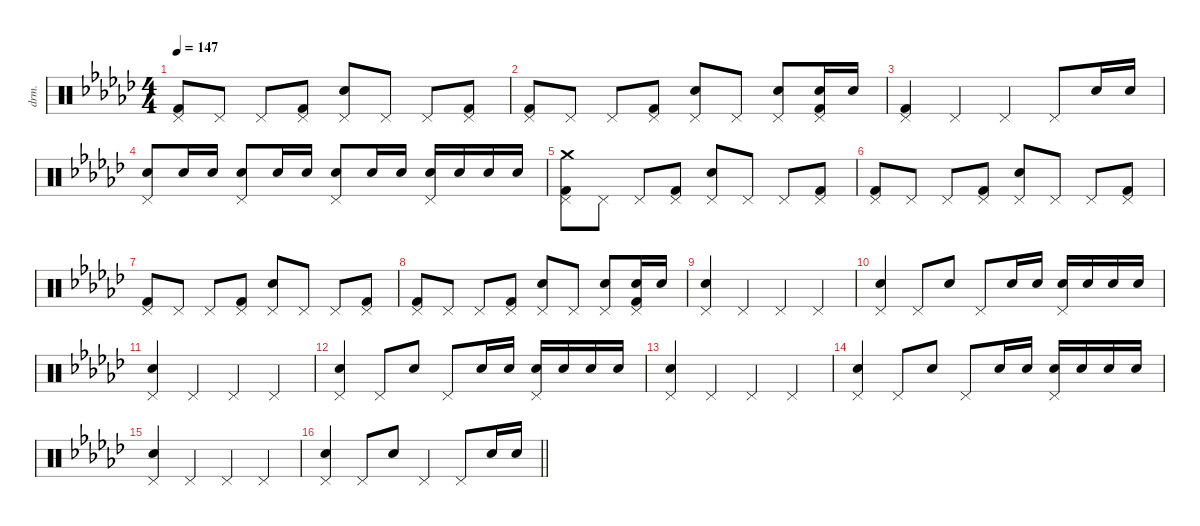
\defaultSystemsLayout 8
\hideDynamics
\bracketExtendMode nobrackets
\otherSystemsTrackNameOrientation horizontal
\track ("Drums" "drm.") {defaultSystemsLayout 4 instrument percussion}
\staff {score}
\articulation defaults
\ts (4 4)
\tempo 147
\clef neutral
\ks ebminor
("Pedal Hi-Hat (hit)"{acc forcenatural} "Kick (hit) 2"{acc forcenatural}).8{dy f beam Up} "Pedal Hi-Hat (hit)"{acc forcenatural}.8{dy mp beam Up} "Pedal Hi-Hat (hit)"{acc forcenatural}.8{dy f beam Up} ("Pedal Hi-Hat (hit)"{acc forcenatural} "Kick (hit) 2"{acc forcenatural}).8{dy mp beam Up} ("Pedal Hi-Hat (hit)"{acc forcenatural} "Snare (hit) 2"{acc forcenatural}).8{dy f beam Up} "Pedal Hi-Hat (hit)"{acc forcenatural}.8{dy mp beam Up} "Pedal Hi-Hat (hit)"{acc forcenatural}.8{dy f beam Up} ("Pedal Hi-Hat (hit)"{acc forcenatural} "Kick (hit) 2"{acc forcenatural}).8{dy mp beam Up} |
("Pedal Hi-Hat (hit)"{acc forcenatural} "Kick (hit) 2"{acc forcenatural}).8{dy f beam Up} "Pedal Hi-Hat (hit)"{acc forcenatural}.8{dy mp beam Up} "Pedal Hi-Hat (hit)"{acc forcenatural}.8{dy f beam Up} ("Pedal Hi-Hat (hit)"{acc forcenatural} "Kick (hit) 2"{acc forcenatural}).8{dy mp beam Up} ("Pedal Hi-Hat (hit)"{acc forcenatural} "Snare (hit) 2"{acc forcenatural}).8{dy f beam Up} "Pedal Hi-Hat (hit)"{acc forcenatural}.8{dy mp beam Up} ("Pedal Hi-Hat (hit)"{acc forcenatural} "Snare (hit) 2"{acc forcenatural}).8{dy f beam Up} ("Pedal Hi-Hat (hit)"{acc forcenatural} "Snare (hit) 2"{acc forcenatural} "Kick (hit) 2"{acc forcenatural}).16{dy mp beam Up} "Snare (hit) 2"{acc forcenatural}.16{dy f beam Up} |
("Pedal Hi-Hat (hit)"{acc forcenatural} "Kick (hit) 2"{acc forcenatural}).4{beam Up} "Pedal Hi-Hat (hit)"{acc forcenatural}.4{beam Up} "Pedal Hi-Hat (hit)"{acc forcenatural}.4{beam Up} "Pedal Hi-Hat (hit)"{acc forcenatural}.8{beam Up} "Snare (hit) 2"{acc forcenatural}.16{dy mf beam Up} "Snare (hit) 2"{acc forcenatural}.16{beam Up} |
("Pedal Hi-Hat (hit)"{acc forcenatural} "Snare (hit) 2"{acc forcenatural}).8{dy f beam Up} "Snare (hit) 2"{acc forcenatural}.16{dy mf beam Up} "Snare (hit) 2"{acc forcenatural}.16{beam Up} ("Pedal Hi-Hat (hit)"{acc forcenatural} "Snare (hit) 2"{acc forcenatural}).8{dy f beam Up} "Snare (hit) 2"{acc forcenatural}.16{dy mf beam Up} "Snare (hit) 2"{acc forcenatural}.16{beam Up} ("Pedal Hi-Hat (hit)"{acc forcenatural} "Snare (hit) 2"{acc forcenatural}).8{dy f beam Up} "Snare (hit) 2"{acc forcenatural}.16{dy mf beam Up} "Snare (hit) 2"{acc forcenatural}.16{beam Up} ("Pedal Hi-Hat (hit)"{acc forcenatural} "Snare (hit) 2"{acc forcenatural}).16{dy f beam Up} "Snare (hit) 2"{acc forcenatural}.16{dy mf beam Up} "Snare (hit) 2"{acc forcenatural}.16{beam Up} "Snare (hit) 2"{acc forcenatural}.16{beam Up} |
("Pedal Hi-Hat (hit)"{acc forcenatural} "Kick (hit) 2"{acc forcenatural} "Crash medium (hit)"{acc forcenatural}).8{dy f beam Down} "Pedal Hi-Hat (hit)"{acc forcenatural}.8{dy mp beam Down} "Pedal Hi-Hat (hit)"{acc forcenatural}.8{dy f beam Up} ("Pedal Hi-Hat (hit)"{acc forcenatural} "Kick (hit) 2"{acc forcenatural}).8{dy mp beam Up} ("Pedal Hi-Hat (hit)"{acc forcenatural} "Snare (hit) 2"{acc forcenatural}).8{dy f beam Up} "Pedal Hi-Hat (hit)"{acc forcenatural}.8{dy mp beam Up} "Pedal Hi-Hat (hit)"{acc forcenatural}.8{dy f beam Up} ("Pedal Hi-Hat (hit)"{acc forcenatural} "Kick (hit) 2"{acc forcenatural}).8{dy mp beam Up} |
("Pedal Hi-Hat (hit)"{acc forcenatural} "Kick (hit) 2"{acc forcenatural}).8{dy f beam Up} "Pedal Hi-Hat (hit)"{acc forcenatural}.8{dy mp beam Up} "Pedal Hi-Hat (hit)"{acc forcenatural}.8{dy f beam Up} ("Pedal Hi-Hat (hit)"{acc forcenatural} "Kick (hit) 2"{acc forcenatural}).8{dy mp beam Up} ("Pedal Hi-Hat (hit)"{acc forcenatural} "Snare (hit) 2"{acc forcenatural}).8{dy f beam Up} "Pedal Hi-Hat (hit)"{acc forcenatural}.8{dy mp beam Up} "Pedal Hi-Hat (hit)"{acc forcenatural}.8{dy f beam Up} ("Pedal Hi-Hat (hit)"{acc forcenatural} "Kick (hit) 2"{acc forcenatural}).8{dy mp beam Up} |
("Pedal Hi-Hat (hit)"{acc forcenatural} "Kick (hit) 2"{acc forcenatural}).8{dy f beam Up} "Pedal Hi-Hat (hit)"{acc forcenatural}.8{dy mp beam Up} "Pedal Hi-Hat (hit)"{acc forcenatural}.8{dy f beam Up} ("Pedal Hi-Hat (hit)"{acc forcenatural} "Kick (hit) 2"{acc forcenatural}).8{dy mp beam Up} ("Pedal Hi-Hat (hit)"{acc forcenatural} "Snare (hit) 2"{acc forcenatural}).8{dy f beam Up} "Pedal Hi-Hat (hit)"{acc forcenatural}.8{dy mp beam Up} "Pedal Hi-Hat (hit)"{acc forcenatural}.8{dy f beam Up} ("Pedal Hi-Hat (hit)"{acc forcenatural} "Kick (hit) 2"{acc forcenatural}).8{dy mp beam Up} |
("Pedal Hi-Hat (hit)"{acc forcenatural} "Kick (hit) 2"{acc forcenatural}).8{dy f beam Up} "Pedal Hi-Hat (hit)"{acc forcenatural}.8{dy mp beam Up} "Pedal Hi-Hat (hit)"{acc forcenatural}.8{dy f beam Up} ("Pedal Hi-Hat (hit)"{acc forcenatural} "Kick (hit) 2"{acc forcenatural}).8{dy mp beam Up} ("Pedal Hi-Hat (hit)"{acc forcenatural} "Snare (hit) 2"{acc forcenatural}).8{dy f beam Up} "Pedal Hi-Hat (hit)"{acc forcenatural}.8{dy mp beam Up} ("Pedal Hi-Hat (hit)"{acc forcenatural} "Snare (hit) 2"{acc forcenatural}).8{dy f beam Up} ("Pedal Hi-Hat (hit)"{acc forcenatural} "Snare (hit) 2"{acc forcenatural} "Kick (hit) 2"{acc forcenatural}).16{dy mp beam Up} "Snare (hit) 2"{acc forcenatural}.16{dy f beam Up} |
("Pedal Hi-Hat (hit)"{acc forcenatural} "Snare (hit) 2"{acc forcenatural}).4{beam Up} "Pedal Hi-Hat (hit)"{acc forcenatural}.4{beam Up} "Pedal Hi-Hat (hit)"{acc forcenatural}.4{beam Up} "Pedal Hi-Hat (hit)"{acc forcenatural}.4{beam Up} |
("Pedal Hi-Hat (hit)"{acc forcenatural} "Snare (hit) 2"{acc forcenatural}).4{beam Up} "Pedal Hi-Hat (hit)"{acc forcenatural}.8{beam Up} "Snare (hit) 2"{acc forcenatural}.8{beam Up} "Pedal Hi-Hat (hit)"{acc forcenatural}.8{beam Up} "Snare (hit) 2"{acc forcenatural}.16{dy p beam Up} "Snare (hit) 2"{acc forcenatural}.16{dy mp beam Up} ("Pedal Hi-Hat (hit)"{acc forcenatural} "Snare (hit) 2"{acc forcenatural}).16{dy f beam Up} "Snare (hit) 2"{acc forcenatural}.16{dy mf beam Up} "Snare (hit) 2"{acc forcenatural}.16{dy f beam Up} "Snare (hit) 2"{acc forcenatural}.16{dy ff beam Up} |
("Pedal Hi-Hat (hit)"{acc forcenatural} "Snare (hit) 2"{acc forcenatural}).4{dy f beam Up} "Pedal Hi-Hat (hit)"{acc forcenatural}.4{beam Up} "Pedal Hi-Hat (hit)"{acc forcenatural}.4{beam Up} "Pedal Hi-Hat (hit)"{acc forcenatural}.4{beam Up} |
("Pedal Hi-Hat (hit)"{acc forcenatural} "Snare (hit) 2"{acc forcenatural}).4{beam Up} "Pedal Hi-Hat (hit)"{acc forcenatural}.8{beam Up} "Snare (hit) 2"{acc forcenatural}.8{beam Up} "Pedal Hi-Hat (hit)"{acc forcenatural}.8{beam Up} "Snare (hit) 2"{acc forcenatural}.16{dy p beam Up} "Snare (hit) 2"{acc forcenatural}.16{dy mp beam Up} ("Pedal Hi-Hat (hit)"{acc forcenatural} "Snare (hit) 2"{acc forcenatural}).16{dy f beam Up} "Snare (hit) 2"{acc forcenatural}.16{dy mf beam Up} "Snare (hit) 2"{acc forcenatural}.16{dy f beam Up} "Snare (hit) 2"{acc forcenatural}.16{dy ff beam Up} |
("Pedal Hi-Hat (hit)"{acc forcenatural} "Snare (hit) 2"{acc forcenatural}).4{dy f beam Up} "Pedal Hi-Hat (hit)"{acc forcenatural}.4{beam Up} "Pedal Hi-Hat (hit)"{acc forcenatural}.4{beam Up} "Pedal Hi-Hat (hit)"{acc forcenatural}.4{beam Up} |
("Pedal Hi-Hat (hit)"{acc forcenatural} "Snare (hit) 2"{acc forcenatural}).4{beam Up} "Pedal Hi-Hat (hit)"{acc forcenatural}.8{beam Up} "Snare (hit) 2"{acc forcenatural}.8{beam Up} "Pedal Hi-Hat (hit)"{acc forcenatural}.8{beam Up} "Snare (hit) 2"{acc forcenatural}.16{dy p beam Up} "Snare (hit) 2"{acc forcenatural}.16{dy mp beam Up} ("Pedal Hi-Hat (hit)"{acc forcenatural} "Snare (hit) 2"{acc forcenatural}).16{dy f beam Up} "Snare (hit) 2"{acc forcenatural}.16{dy mf beam Up} "Snare (hit) 2"{acc forcenatural}.16{dy f beam Up} "Snare (hit) 2"{acc forcenatural}.16{dy ff beam Up} |
("Pedal Hi-Hat (hit)"{acc forcenatural} "Snare (hit) 2"{acc forcenatural}).4{dy f beam Up} "Pedal Hi-Hat (hit)"{acc forcenatural}.4{beam Up} "Pedal Hi-Hat (hit)"{acc forcenatural}.4{beam Up} "Pedal Hi-Hat (hit)"{acc forcenatural}.4{beam Up} |
\barLineRight lightlight
("Pedal Hi-Hat (hit)"{acc forcenatural} "Snare (hit) 2"{acc forcenatural}).4{beam Up} "Pedal Hi-Hat (hit)"{acc forcenatural}.8{beam Up} "Snare (hit) 2"{acc forcenatural}.8{beam Up} "Pedal Hi-Hat (hit)"{acc forcenatural}.4{beam Up} "Pedal Hi-Hat (hit)"{acc forcenatural}.8{beam Up} "Snare (hit) 2"{acc forcenatural}.16{beam Up} "Snare (hit) 2"{acc forcenatural}.16{dy ff beam Up}
